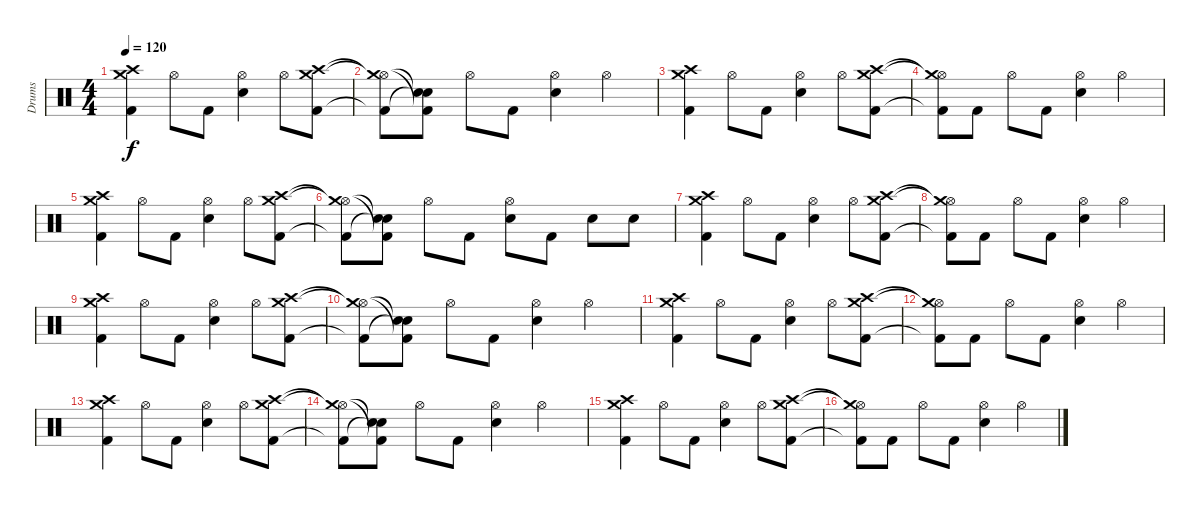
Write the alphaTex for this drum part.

\track ("Drums" "Drums") {instrument percussion}
\staff {score}
\articulation defaults
\ts (4 4)
\tempo 120
\clef neutral
\ks c
("Crash high (hit)" "Crash medium (hit)" "Kick (hit) 2").4{dy f} "Hi-Hat (open)".8 "Kick (hit) 2".8 ("Hi-Hat (open)" "Snare (hit) 2").4 "Hi-Hat (open)".8 ("Crash high (hit)" "Crash medium (hit)" "Kick (hit) 2").8 |
("Hi-Hat (open)"{t} "Crash medium (hit)"{t} "Kick (hit) 2"{t}).8 ("Kick (hit) 2"{t} "Snare (hit)"{t} "Snare (hit)"{t}).8 "Hi-Hat (open)".8 "Kick (hit) 2".8 ("Hi-Hat (open)" "Snare (hit) 2").4 "Hi-Hat (open)".4 |
("Crash high (hit)" "Crash medium (hit)" "Kick (hit) 2").4 "Hi-Hat (open)".8 "Kick (hit) 2".8 ("Hi-Hat (open)" "Snare (hit) 2").4 "Hi-Hat (open)".8 ("Crash high (hit)" "Crash medium (hit)" "Kick (hit) 2").8 |
("Hi-Hat (open)"{t} "Crash medium (hit)"{t} "Kick (hit) 2"{t}).8 "Kick (hit) 2".8 "Hi-Hat (open)".8 "Kick (hit) 2".8 ("Hi-Hat (open)" "Snare (hit) 2").4 "Hi-Hat (open)".4 |
("Crash high (hit)" "Crash medium (hit)" "Kick (hit) 2").4 "Hi-Hat (open)".8 "Kick (hit) 2".8 ("Hi-Hat (open)" "Snare (hit) 2").4 "Hi-Hat (open)".8 ("Crash high (hit)" "Crash medium (hit)" "Kick (hit) 2").8 |
("Hi-Hat (open)"{t} "Crash medium (hit)"{t} "Kick (hit) 2"{t}).8 ("Kick (hit) 2"{t} "Snare (hit)"{t} "Snare (hit)"{t}).8 "Hi-Hat (open)".8 "Kick (hit) 2".8 ("Hi-Hat (open)" "Snare (hit) 2").8 "Kick (hit) 2".8 "Snare (hit) 2".8 "Snare (hit) 2".8 |
("Crash high (hit)" "Crash medium (hit)" "Kick (hit) 2").4 "Hi-Hat (open)".8 "Kick (hit) 2".8 ("Hi-Hat (open)" "Snare (hit) 2").4 "Hi-Hat (open)".8 ("Crash high (hit)" "Crash medium (hit)" "Kick (hit) 2").8 |
("Hi-Hat (open)"{t} "Crash medium (hit)"{t} "Kick (hit) 2"{t}).8 "Kick (hit) 2".8 "Hi-Hat (open)".8 "Kick (hit) 2".8 ("Hi-Hat (open)" "Snare (hit) 2").4 "Hi-Hat (open)".4 |
("Crash high (hit)" "Crash medium (hit)" "Kick (hit) 2").4 "Hi-Hat (open)".8 "Kick (hit) 2".8 ("Hi-Hat (open)" "Snare (hit) 2").4 "Hi-Hat (open)".8 ("Crash high (hit)" "Crash medium (hit)" "Kick (hit) 2").8 |
("Hi-Hat (open)"{t} "Crash medium (hit)"{t} "Kick (hit) 2"{t}).8 ("Kick (hit) 2"{t} "Snare (hit)"{t} "Snare (hit)"{t}).8 "Hi-Hat (open)".8 "Kick (hit) 2".8 ("Hi-Hat (open)" "Snare (hit) 2").4 "Hi-Hat (open)".4 |
("Crash high (hit)" "Crash medium (hit)" "Kick (hit) 2").4 "Hi-Hat (open)".8 "Kick (hit) 2".8 ("Hi-Hat (open)" "Snare (hit) 2").4 "Hi-Hat (open)".8 ("Crash high (hit)" "Crash medium (hit)" "Kick (hit) 2").8 |
("Hi-Hat (open)"{t} "Crash medium (hit)"{t} "Kick (hit) 2"{t}).8 "Kick (hit) 2".8 "Hi-Hat (open)".8 "Kick (hit) 2".8 ("Hi-Hat (open)" "Snare (hit) 2").4 "Hi-Hat (open)".4 |
("Crash high (hit)" "Crash medium (hit)" "Kick (hit) 2").4 "Hi-Hat (open)".8 "Kick (hit) 2".8 ("Hi-Hat (open)" "Snare (hit) 2").4 "Hi-Hat (open)".8 ("Crash high (hit)" "Crash medium (hit)" "Kick (hit) 2").8 |
("Hi-Hat (open)"{t} "Crash medium (hit)"{t} "Kick (hit) 2"{t}).8 ("Kick (hit) 2"{t} "Snare (hit)"{t} "Snare (hit)"{t}).8 "Hi-Hat (open)".8 "Kick (hit) 2".8 ("Hi-Hat (open)" "Snare (hit) 2").4 "Hi-Hat (open)".4 |
("Crash high (hit)" "Crash medium (hit)" "Kick (hit) 2").4 "Hi-Hat (open)".8 "Kick (hit) 2".8 ("Hi-Hat (open)" "Snare (hit) 2").4 "Hi-Hat (open)".8 ("Crash high (hit)" "Crash medium (hit)" "Kick (hit) 2").8 |
("Hi-Hat (open)"{t} "Crash medium (hit)"{t} "Kick (hit) 2"{t}).8 "Kick (hit) 2".8 "Hi-Hat (open)".8 "Kick (hit) 2".8 ("Hi-Hat (open)" "Snare (hit) 2").4 "Hi-Hat (open)".4
